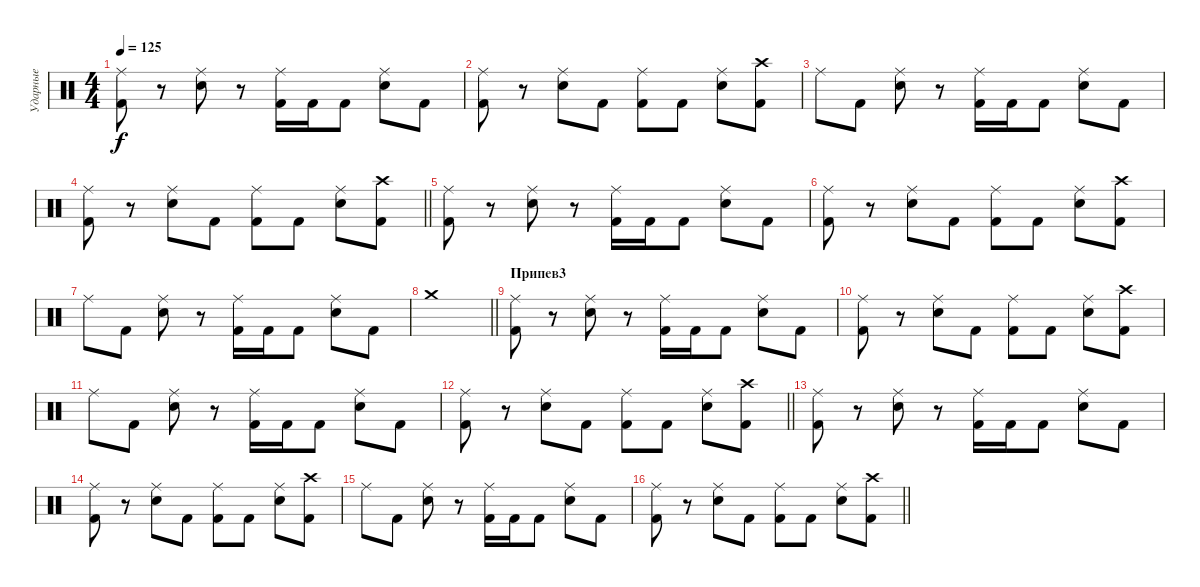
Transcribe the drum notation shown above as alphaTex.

\track ("Ударные" "Ударные") {instrument percussion}
\staff {score}
\articulation defaults
\ts (4 4)
\tempo 125
\clef neutral
\ks c
("Ride (middle)" "Kick (hit) 2").8{dy f} r.8 ("Ride (middle)" "Snare (hit) 2").8 r.8 ("Ride (middle)" "Kick (hit) 2").16 "Kick (hit) 2".16 "Kick (hit) 2".8 ("Ride (middle)" "Snare (hit) 2").8 "Kick (hit) 2".8 |
("Ride (middle)" "Kick (hit) 2").8 r.8 ("Ride (middle)" "Snare (hit) 2").8 "Kick (hit) 2".8 ("Ride (middle)" "Kick (hit) 2").8 "Kick (hit) 2".8 ("Ride (middle)" "Snare (hit) 2").8 ("Crash high (hit)" "Kick (hit) 2").8 |
"Ride (middle)".8 "Kick (hit) 2".8 ("Ride (middle)" "Snare (hit) 2").8 r.8 ("Ride (middle)" "Kick (hit) 2").16 "Kick (hit) 2".16 "Kick (hit) 2".8 ("Ride (middle)" "Snare (hit) 2").8 "Kick (hit) 2".8 |
\barLineRight lightlight
("Ride (middle)" "Kick (hit) 2").8 r.8 ("Ride (middle)" "Snare (hit) 2").8 "Kick (hit) 2".8 ("Ride (middle)" "Kick (hit) 2").8 "Kick (hit) 2".8 ("Ride (middle)" "Snare (hit) 2").8 ("Crash high (hit)" "Kick (hit) 2").8 |
("Ride (middle)" "Kick (hit) 2").8 r.8 ("Ride (middle)" "Snare (hit) 2").8 r.8 ("Ride (middle)" "Kick (hit) 2").16 "Kick (hit) 2".16 "Kick (hit) 2".8 ("Ride (middle)" "Snare (hit) 2").8 "Kick (hit) 2".8 |
("Ride (middle)" "Kick (hit) 2").8 r.8 ("Ride (middle)" "Snare (hit) 2").8 "Kick (hit) 2".8 ("Ride (middle)" "Kick (hit) 2").8 "Kick (hit) 2".8 ("Ride (middle)" "Snare (hit) 2").8 ("Crash high (hit)" "Kick (hit) 2").8 |
"Ride (middle)".8 "Kick (hit) 2".8 ("Ride (middle)" "Snare (hit) 2").8 r.8 ("Ride (middle)" "Kick (hit) 2").16 "Kick (hit) 2".16 "Kick (hit) 2".8 ("Ride (middle)" "Snare (hit) 2").8 "Kick (hit) 2".8 |
\barLineRight lightlight "Crash medium (hit)".1
|
\section ("" "Припев3")
("Ride (middle)" "Kick (hit) 2").8 r.8 ("Ride (middle)" "Snare (hit) 2").8 r.8 ("Ride (middle)" "Kick (hit) 2").16 "Kick (hit) 2".16 "Kick (hit) 2".8 ("Ride (middle)" "Snare (hit) 2").8 "Kick (hit) 2".8 |
("Ride (middle)" "Kick (hit) 2").8 r.8 ("Ride (middle)" "Snare (hit) 2").8 "Kick (hit) 2".8 ("Ride (middle)" "Kick (hit) 2").8 "Kick (hit) 2".8 ("Ride (middle)" "Snare (hit) 2").8 ("Crash high (hit)" "Kick (hit) 2").8 |
"Ride (middle)".8 "Kick (hit) 2".8 ("Ride (middle)" "Snare (hit) 2").8 r.8 ("Ride (middle)" "Kick (hit) 2").16 "Kick (hit) 2".16 "Kick (hit) 2".8 ("Ride (middle)" "Snare (hit) 2").8 "Kick (hit) 2".8 |
\barLineRight lightlight
("Ride (middle)" "Kick (hit) 2").8 r.8 ("Ride (middle)" "Snare (hit) 2").8 "Kick (hit) 2".8 ("Ride (middle)" "Kick (hit) 2").8 "Kick (hit) 2".8 ("Ride (middle)" "Snare (hit) 2").8 ("Crash high (hit)" "Kick (hit) 2").8 |
("Ride (middle)" "Kick (hit) 2").8 r.8 ("Ride (middle)" "Snare (hit) 2").8 r.8 ("Ride (middle)" "Kick (hit) 2").16 "Kick (hit) 2".16 "Kick (hit) 2".8 ("Ride (middle)" "Snare (hit) 2").8 "Kick (hit) 2".8 |
("Ride (middle)" "Kick (hit) 2").8 r.8 ("Ride (middle)" "Snare (hit) 2").8 "Kick (hit) 2".8 ("Ride (middle)" "Kick (hit) 2").8 "Kick (hit) 2".8 ("Ride (middle)" "Snare (hit) 2").8 ("Crash high (hit)" "Kick (hit) 2").8 |
"Ride (middle)".8 "Kick (hit) 2".8 ("Ride (middle)" "Snare (hit) 2").8 r.8 ("Ride (middle)" "Kick (hit) 2").16 "Kick (hit) 2".16 "Kick (hit) 2".8 ("Ride (middle)" "Snare (hit) 2").8 "Kick (hit) 2".8 |
\barLineRight lightlight
("Ride (middle)" "Kick (hit) 2").8 r.8 ("Ride (middle)" "Snare (hit) 2").8 "Kick (hit) 2".8 ("Ride (middle)" "Kick (hit) 2").8 "Kick (hit) 2".8 ("Ride (middle)" "Snare (hit) 2").8 ("Crash high (hit)" "Kick (hit) 2").8
